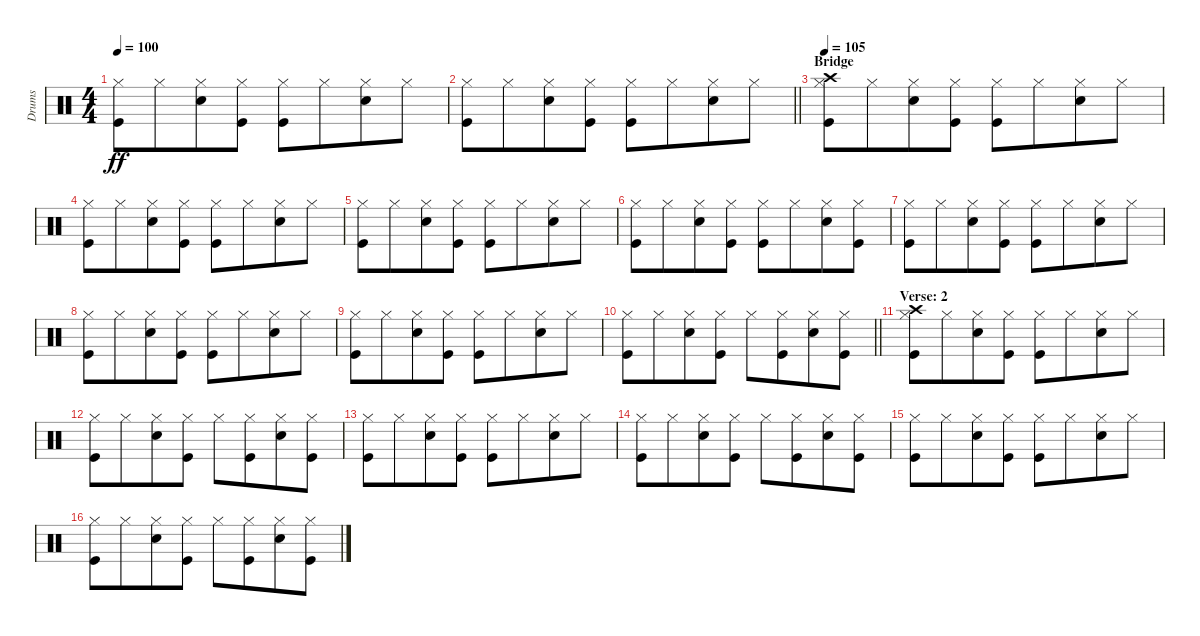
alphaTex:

\track ("Drums" "Drums") {instrument percussion}
\staff {score}
\articulation defaults
\ts (4 4)
\tempo 100
\clef neutral
\ks c
("Hi-Hat (closed)" "Kick (hit)").8{dy ff} "Hi-Hat (closed)".8{beam merge} ("Hi-Hat (closed)" "Snare (hit) 2").8 ("Hi-Hat (closed)" "Kick (hit)").8 ("Hi-Hat (closed)" "Kick (hit)").8 "Hi-Hat (closed)".8{beam merge} ("Hi-Hat (closed)" "Snare (hit) 2").8 "Hi-Hat (closed)".8 |
\barLineRight lightlight
("Hi-Hat (closed)" "Kick (hit)").8 "Hi-Hat (closed)".8{beam merge} ("Hi-Hat (closed)" "Snare (hit) 2").8 ("Hi-Hat (closed)" "Kick (hit)").8 ("Hi-Hat (closed)" "Kick (hit)").8 "Hi-Hat (closed)".8{beam merge} ("Hi-Hat (closed)" "Snare (hit) 2").8 "Hi-Hat (closed)".8 |
\section ("" "Bridge")
\tempo 105
("Hi-Hat (closed)" "Crash high (hit)" "Kick (hit)").8 "Hi-Hat (closed)".8{beam merge} ("Hi-Hat (closed)" "Snare (hit) 2").8 ("Hi-Hat (closed)" "Kick (hit)").8 ("Hi-Hat (closed)" "Kick (hit)").8 "Hi-Hat (closed)".8{beam merge} ("Hi-Hat (closed)" "Snare (hit) 2").8 "Hi-Hat (closed)".8 |
("Hi-Hat (closed)" "Kick (hit)").8 "Hi-Hat (closed)".8{beam merge} ("Hi-Hat (closed)" "Snare (hit) 2").8 ("Hi-Hat (closed)" "Kick (hit)").8 ("Hi-Hat (closed)" "Kick (hit)").8 "Hi-Hat (closed)".8{beam merge} ("Hi-Hat (closed)" "Snare (hit) 2").8 "Hi-Hat (closed)".8 |
("Hi-Hat (closed)" "Kick (hit)").8 "Hi-Hat (closed)".8{beam merge} ("Hi-Hat (closed)" "Snare (hit) 2").8 ("Hi-Hat (closed)" "Kick (hit)").8 ("Hi-Hat (closed)" "Kick (hit)").8 "Hi-Hat (closed)".8{beam merge} ("Hi-Hat (closed)" "Snare (hit) 2").8 "Hi-Hat (closed)".8 |
("Hi-Hat (closed)" "Kick (hit)").8 "Hi-Hat (closed)".8{beam merge} ("Hi-Hat (closed)" "Snare (hit) 2").8 ("Hi-Hat (closed)" "Kick (hit)").8 ("Hi-Hat (closed)" "Kick (hit)").8 "Hi-Hat (closed)".8{beam merge} ("Hi-Hat (closed)" "Snare (hit) 2").8 ("Hi-Hat (closed)" "Kick (hit)").8 |
("Hi-Hat (closed)" "Kick (hit)").8 "Hi-Hat (closed)".8{beam merge} ("Hi-Hat (closed)" "Snare (hit) 2").8 ("Hi-Hat (closed)" "Kick (hit)").8 ("Hi-Hat (closed)" "Kick (hit)").8 "Hi-Hat (closed)".8{beam merge} ("Hi-Hat (closed)" "Snare (hit) 2").8 "Hi-Hat (closed)".8 |
("Hi-Hat (closed)" "Kick (hit)").8 "Hi-Hat (closed)".8{beam merge} ("Hi-Hat (closed)" "Snare (hit) 2").8 ("Hi-Hat (closed)" "Kick (hit)").8 ("Hi-Hat (closed)" "Kick (hit)").8 "Hi-Hat (closed)".8{beam merge} ("Hi-Hat (closed)" "Snare (hit) 2").8 "Hi-Hat (closed)".8 |
("Hi-Hat (closed)" "Kick (hit)").8 "Hi-Hat (closed)".8{beam merge} ("Hi-Hat (closed)" "Snare (hit) 2").8 ("Hi-Hat (closed)" "Kick (hit)").8 ("Hi-Hat (closed)" "Kick (hit)").8 "Hi-Hat (closed)".8{beam merge} ("Hi-Hat (closed)" "Snare (hit) 2").8 "Hi-Hat (closed)".8 |
\barLineRight lightlight
("Hi-Hat (closed)" "Kick (hit)").8 "Hi-Hat (closed)".8{beam merge} ("Hi-Hat (closed)" "Snare (hit) 2").8 ("Hi-Hat (closed)" "Kick (hit)").8 "Hi-Hat (closed)".8 ("Hi-Hat (closed)" "Kick (hit)").8{beam merge} ("Hi-Hat (closed)" "Snare (hit) 2").8 ("Hi-Hat (closed)" "Kick (hit)").8 |
\section ("" "Verse: 2")
("Hi-Hat (closed)" "Crash high (hit)" "Kick (hit)").8 "Hi-Hat (closed)".8{beam merge} ("Hi-Hat (closed)" "Snare (hit) 2").8 ("Hi-Hat (closed)" "Kick (hit)").8 ("Hi-Hat (closed)" "Kick (hit)").8 "Hi-Hat (closed)".8{beam merge} ("Hi-Hat (closed)" "Snare (hit) 2").8 "Hi-Hat (closed)".8 |
("Hi-Hat (closed)" "Kick (hit)").8 "Hi-Hat (closed)".8{beam merge} ("Hi-Hat (closed)" "Snare (hit) 2").8 ("Hi-Hat (closed)" "Kick (hit)").8 "Hi-Hat (closed)".8 ("Hi-Hat (closed)" "Kick (hit)").8{beam merge} ("Hi-Hat (closed)" "Snare (hit) 2").8 ("Hi-Hat (closed)" "Kick (hit)").8 |
("Hi-Hat (closed)" "Kick (hit)").8 "Hi-Hat (closed)".8{beam merge} ("Hi-Hat (closed)" "Snare (hit) 2").8 ("Hi-Hat (closed)" "Kick (hit)").8 ("Hi-Hat (closed)" "Kick (hit)").8 "Hi-Hat (closed)".8{beam merge} ("Hi-Hat (closed)" "Snare (hit) 2").8 "Hi-Hat (closed)".8 |
("Hi-Hat (closed)" "Kick (hit)").8 "Hi-Hat (closed)".8{beam merge} ("Hi-Hat (closed)" "Snare (hit) 2").8 ("Hi-Hat (closed)" "Kick (hit)").8 "Hi-Hat (closed)".8 ("Hi-Hat (closed)" "Kick (hit)").8{beam merge} ("Hi-Hat (closed)" "Snare (hit) 2").8 ("Hi-Hat (closed)" "Kick (hit)").8 |
("Hi-Hat (closed)" "Kick (hit)").8 "Hi-Hat (closed)".8{beam merge} ("Hi-Hat (closed)" "Snare (hit) 2").8 ("Hi-Hat (closed)" "Kick (hit)").8 ("Hi-Hat (closed)" "Kick (hit)").8 "Hi-Hat (closed)".8{beam merge} ("Hi-Hat (closed)" "Snare (hit) 2").8 "Hi-Hat (closed)".8 |
("Hi-Hat (closed)" "Kick (hit)").8 "Hi-Hat (closed)".8{beam merge} ("Hi-Hat (closed)" "Snare (hit) 2").8 ("Hi-Hat (closed)" "Kick (hit)").8 "Hi-Hat (closed)".8 ("Hi-Hat (closed)" "Kick (hit)").8{beam merge} ("Hi-Hat (closed)" "Snare (hit) 2").8 ("Hi-Hat (closed)" "Kick (hit)").8
